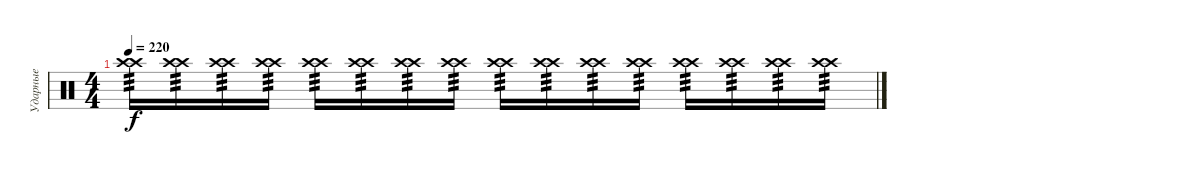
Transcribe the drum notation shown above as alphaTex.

\track ("Ударные" "Ударные") {instrument percussion}
\staff {score}
\articulation defaults
\ts (4 4)
\tempo 220
\clef neutral
\ks c
("Crash high (hit)" "Crash high (hit)").16{tp 3 dy f} ("Crash high (hit)" "Crash high (hit)").16{tp 3} ("Crash high (hit)" "Crash high (hit)").16{tp 3} ("Crash high (hit)" "Crash high (hit)").16{tp 3} ("Crash high (hit)" "Crash high (hit)").16{tp 3} ("Crash high (hit)" "Crash high (hit)").16{tp 3} ("Crash high (hit)" "Crash high (hit)").16{tp 3} ("Crash high (hit)" "Crash high (hit)").16{tp 3} ("Crash high (hit)" "Crash high (hit)").16{tp 3} ("Crash high (hit)" "Crash high (hit)").16{tp 3} ("Crash high (hit)" "Crash high (hit)").16{tp 3} ("Crash high (hit)" "Crash high (hit)").16{tp 3} ("Crash high (hit)" "Crash high (hit)").16{tp 3} ("Crash high (hit)" "Crash high (hit)").16{tp 3} ("Crash high (hit)" "Crash high (hit)").16{tp 3} ("Crash high (hit)" "Crash high (hit)").16{tp 3}
